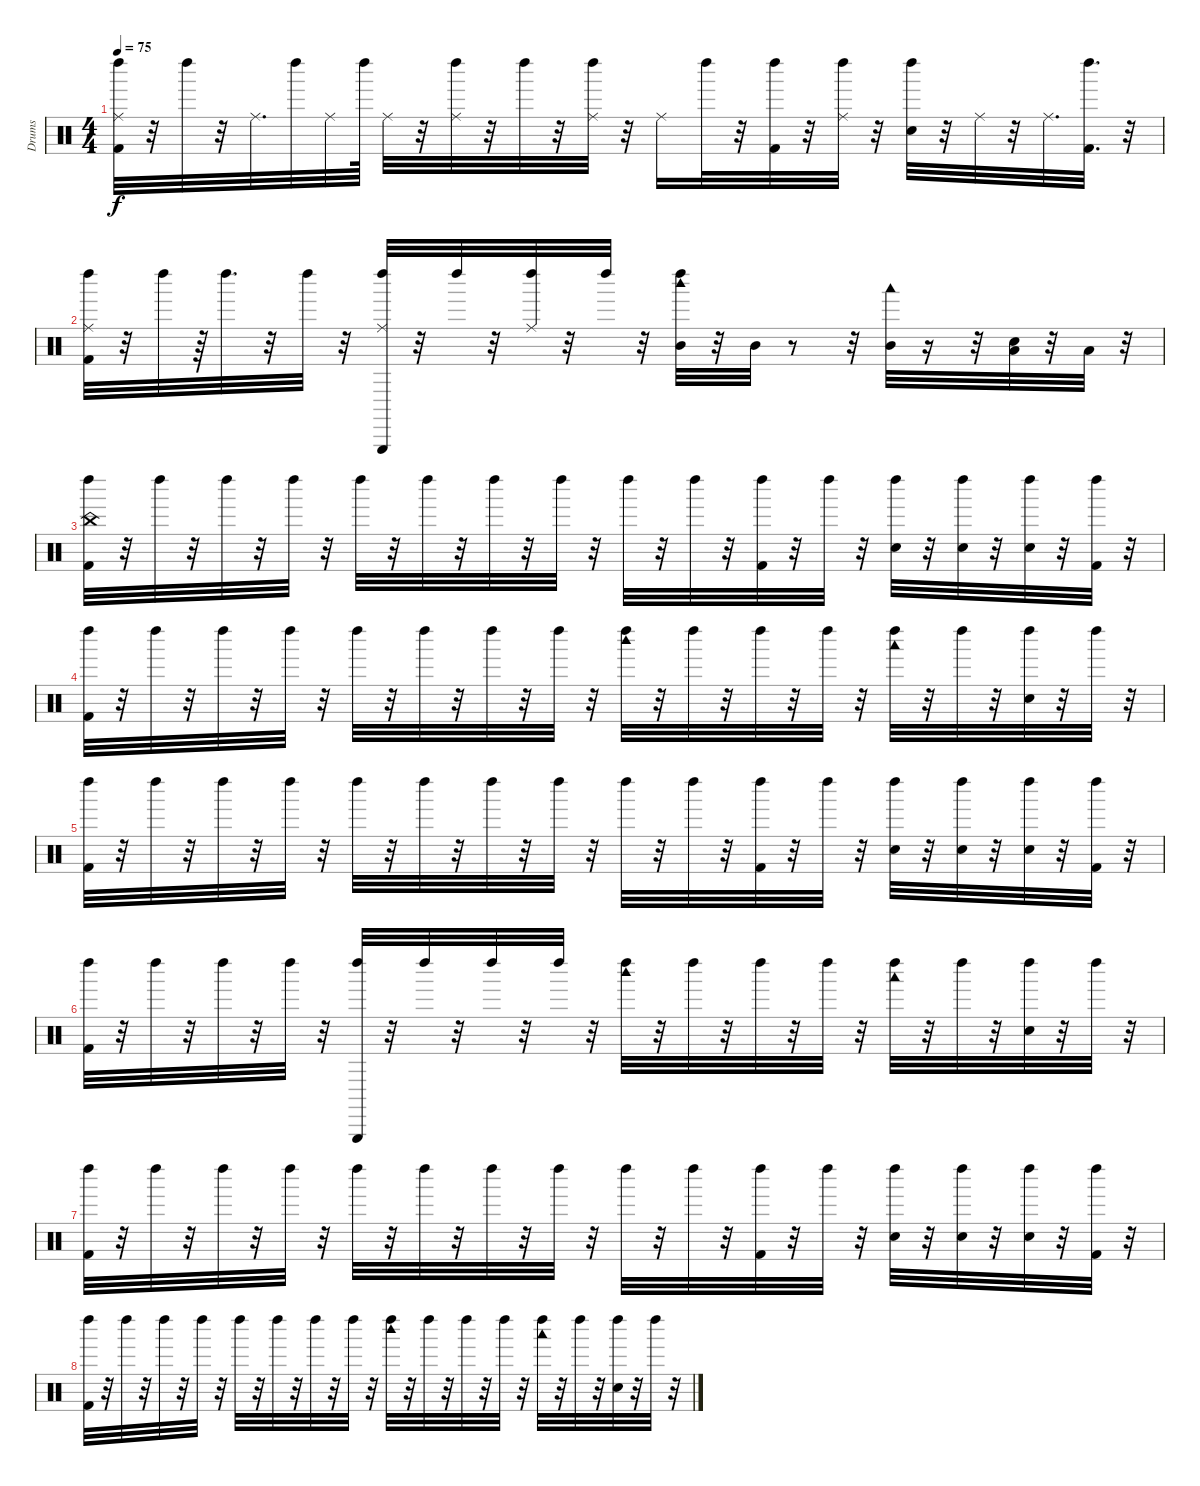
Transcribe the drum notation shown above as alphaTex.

\track ("Drums" "Drums") {instrument percussion}
\staff {score}
\articulation defaults
\ts (4 4)
\tempo 75
\clef neutral
\ks c
("Ride (middle)" "Kick (hit) 2" "Left Maraca (hit)").32{dy f} r.32 "Left Maraca (hit)".32 r.32 "Ride (middle)".32{d} "Left Maraca (hit)".32 "Ride (middle)".32 "Left Maraca (hit)".64 "Ride (middle)".32 r.32 ("Ride (middle)" "Left Maraca (hit)").32 r.32 "Left Maraca (hit)".32 r.32 ("Ride (middle)" "Left Maraca (hit)").32 r.32 "Ride (middle)".16 "Left Maraca (hit)".32 r.32 ("Kick (hit) 2" "Left Maraca (hit)").32 r.32 ("Ride (middle)" "Left Maraca (hit)").32 r.32 ("Snare (hit) 2" "Left Maraca (hit)").32 r.32 "Ride (middle)".32 r.32 "Ride (middle)".32{d} ("Kick (hit) 2" "Left Maraca (hit)").32{d} r.32 |
("Ride (middle)" "Kick (hit) 2" "Left Maraca (hit)").32 r.32 "Left Maraca (hit)".32 r.64 "Left Maraca (hit)".32{d} r.32 "Left Maraca (hit)".32 r.32 ("Ride (middle)" "Triangle (hit)" "Left Maraca (hit)").32 r.32 "Left Maraca (hit)".32 r.32 ("Ride (middle)" "Left Maraca (hit)").32 r.32 "Left Maraca (hit)".32 r.32 ("Mid Tom (hit)" "Woodblock high (hit)" "Left Maraca (hit)").32 r.32 "Mid Tom (hit)".32 r.8 r.32 ("Mid Tom (hit)" "Woodblock low (hit)").32 r.16 r.32 ("Low Tom (hit)" "Hand Clap (hit)").32 r.32 "Low Tom (hit)".32 r.32 |
("China (hit)" "Kick (hit) 2" "Left Maraca (hit)").32 r.32 "Left Maraca (hit)".32 r.32 "Left Maraca (hit)".32 r.32 "Left Maraca (hit)".32 r.32 "Left Maraca (hit)".32 r.32 "Left Maraca (hit)".32 r.32 "Left Maraca (hit)".32 r.32 "Left Maraca (hit)".32 r.32 "Left Maraca (hit)".32 r.32 "Left Maraca (hit)".32 r.32 ("Kick (hit) 2" "Left Maraca (hit)").32 r.32 "Left Maraca (hit)".32 r.32 ("Snare (hit) 2" "Left Maraca (hit)").32 r.32 ("Snare (hit) 2" "Left Maraca (hit)").32 r.32 ("Snare (hit) 2" "Left Maraca (hit)").32 r.32 ("Kick (hit) 2" "Left Maraca (hit)").32 r.32 |
("Kick (hit) 2" "Left Maraca (hit)").32 r.32 "Left Maraca (hit)".32 r.32 "Left Maraca (hit)".32 r.32 "Left Maraca (hit)".32 r.32 "Left Maraca (hit)".32 r.32 "Left Maraca (hit)".32 r.32 "Left Maraca (hit)".32 r.32 "Left Maraca (hit)".32 r.32 ("Woodblock high (hit)" "Left Maraca (hit)").32 r.32 "Left Maraca (hit)".32 r.32 "Left Maraca (hit)".32 r.32 "Left Maraca (hit)".32 r.32 ("Woodblock low (hit)" "Left Maraca (hit)").32 r.32 "Left Maraca (hit)".32 r.32 ("Hand Clap (hit)" "Left Maraca (hit)").32 r.32 "Left Maraca (hit)".32 r.32 |
("Kick (hit) 2" "Left Maraca (hit)").32 r.32 "Left Maraca (hit)".32 r.32 "Left Maraca (hit)".32 r.32 "Left Maraca (hit)".32 r.32 "Left Maraca (hit)".32 r.32 "Left Maraca (hit)".32 r.32 "Left Maraca (hit)".32 r.32 "Left Maraca (hit)".32 r.32 "Left Maraca (hit)".32 r.32 "Left Maraca (hit)".32 r.32 ("Kick (hit) 2" "Left Maraca (hit)").32 r.32 "Left Maraca (hit)".32 r.32 ("Snare (hit) 2" "Left Maraca (hit)").32 r.32 ("Snare (hit) 2" "Left Maraca (hit)").32 r.32 ("Snare (hit) 2" "Left Maraca (hit)").32 r.32 ("Kick (hit) 2" "Left Maraca (hit)").32 r.32 |
("Kick (hit) 2" "Left Maraca (hit)").32 r.32 "Left Maraca (hit)".32 r.32 "Left Maraca (hit)".32 r.32 "Left Maraca (hit)".32 r.32 ("Triangle (hit)" "Left Maraca (hit)").32 r.32 "Left Maraca (hit)".32 r.32 "Left Maraca (hit)".32 r.32 "Left Maraca (hit)".32 r.32 ("Woodblock high (hit)" "Left Maraca (hit)").32 r.32 "Left Maraca (hit)".32 r.32 "Left Maraca (hit)".32 r.32 "Left Maraca (hit)".32 r.32 ("Woodblock low (hit)" "Left Maraca (hit)").32 r.32 "Left Maraca (hit)".32 r.32 ("Hand Clap (hit)" "Left Maraca (hit)").32 r.32 "Left Maraca (hit)".32 r.32 |
("Kick (hit) 2" "Left Maraca (hit)").32 r.32 "Left Maraca (hit)".32 r.32 "Left Maraca (hit)".32 r.32 "Left Maraca (hit)".32 r.32 "Left Maraca (hit)".32 r.32 "Left Maraca (hit)".32 r.32 "Left Maraca (hit)".32 r.32 "Left Maraca (hit)".32 r.32 "Left Maraca (hit)".32 r.32 "Left Maraca (hit)".32 r.32 ("Kick (hit) 2" "Left Maraca (hit)").32 r.32 "Left Maraca (hit)".32 r.32 ("Snare (hit) 2" "Left Maraca (hit)").32 r.32 ("Snare (hit) 2" "Left Maraca (hit)").32 r.32 ("Snare (hit) 2" "Left Maraca (hit)").32 r.32 ("Kick (hit) 2" "Left Maraca (hit)").32 r.32 |
("Kick (hit) 2" "Left Maraca (hit)").32 r.32 "Left Maraca (hit)".32 r.32 "Left Maraca (hit)".32 r.32 "Left Maraca (hit)".32 r.32 "Left Maraca (hit)".32 r.32 "Left Maraca (hit)".32 r.32 "Left Maraca (hit)".32 r.32 "Left Maraca (hit)".32 r.32 ("Woodblock high (hit)" "Left Maraca (hit)").32 r.32 "Left Maraca (hit)".32 r.32 "Left Maraca (hit)".32 r.32 "Left Maraca (hit)".32 r.32 ("Woodblock low (hit)" "Left Maraca (hit)").32 r.32 "Left Maraca (hit)".32 r.32 ("Hand Clap (hit)" "Left Maraca (hit)").32 r.32 "Left Maraca (hit)".32 r.32
